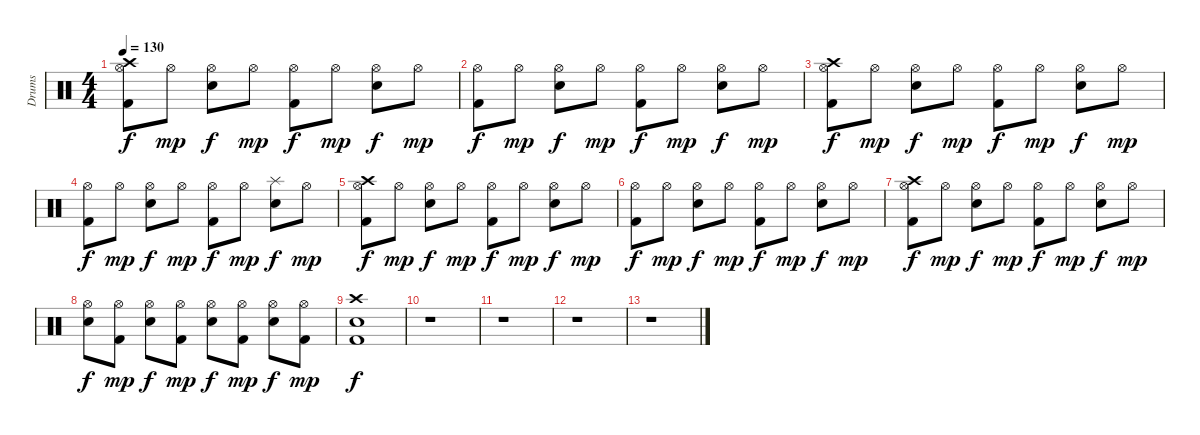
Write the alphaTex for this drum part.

\track ("Drums" "Drums") {instrument percussion}
\staff {score}
\articulation defaults
\ts (4 4)
\tempo 130
\clef neutral
\ks c
("Crash high (hit)" "Hi-Hat (open)" "Kick (hit) 2").8{dy f} "Hi-Hat (open)".8{dy mp} ("Hi-Hat (open)" "Electric Snare (hit)").8{dy f} "Hi-Hat (open)".8{dy mp} ("Hi-Hat (open)" "Kick (hit) 2").8{dy f} "Hi-Hat (open)".8{dy mp} ("Hi-Hat (open)" "Electric Snare (hit)").8{dy f} "Hi-Hat (open)".8{dy mp} |
("Hi-Hat (open)" "Kick (hit) 2").8{dy f} "Hi-Hat (open)".8{dy mp} ("Hi-Hat (open)" "Electric Snare (hit)").8{dy f} "Hi-Hat (open)".8{dy mp} ("Hi-Hat (open)" "Kick (hit) 2").8{dy f} "Hi-Hat (open)".8{dy mp} ("Hi-Hat (open)" "Electric Snare (hit)").8{dy f} "Hi-Hat (open)".8{dy mp} |
("Crash high (hit)" "Hi-Hat (open)" "Kick (hit) 2").8{dy f} "Hi-Hat (open)".8{dy mp} ("Hi-Hat (open)" "Electric Snare (hit)").8{dy f} "Hi-Hat (open)".8{dy mp} ("Hi-Hat (open)" "Kick (hit) 2").8{dy f} "Hi-Hat (open)".8{dy mp} ("Hi-Hat (open)" "Electric Snare (hit)").8{dy f} "Hi-Hat (open)".8{dy mp} |
("Hi-Hat (open)" "Kick (hit) 2").8{dy f} "Hi-Hat (open)".8{dy mp} ("Hi-Hat (open)" "Electric Snare (hit)").8{dy f} "Hi-Hat (open)".8{dy mp} ("Hi-Hat (open)" "Kick (hit) 2").8{dy f} "Hi-Hat (open)".8{dy mp} ("Splash (hit)" "Electric Snare (hit)").8{dy f} "Hi-Hat (open)".8{dy mp} |
("Crash high (hit)" "Hi-Hat (open)" "Kick (hit) 2").8{dy f} "Hi-Hat (open)".8{dy mp} ("Hi-Hat (open)" "Electric Snare (hit)").8{dy f} "Hi-Hat (open)".8{dy mp} ("Hi-Hat (open)" "Kick (hit) 2").8{dy f} "Hi-Hat (open)".8{dy mp} ("Hi-Hat (open)" "Electric Snare (hit)").8{dy f} "Hi-Hat (open)".8{dy mp} |
("Hi-Hat (open)" "Kick (hit) 2").8{dy f} "Hi-Hat (open)".8{dy mp} ("Hi-Hat (open)" "Electric Snare (hit)").8{dy f} "Hi-Hat (open)".8{dy mp} ("Hi-Hat (open)" "Kick (hit) 2").8{dy f} "Hi-Hat (open)".8{dy mp} ("Hi-Hat (open)" "Electric Snare (hit)").8{dy f} "Hi-Hat (open)".8{dy mp} |
("Crash high (hit)" "Hi-Hat (open)" "Kick (hit) 2").8{dy f} "Hi-Hat (open)".8{dy mp} ("Hi-Hat (open)" "Electric Snare (hit)").8{dy f} "Hi-Hat (open)".8{dy mp} ("Hi-Hat (open)" "Kick (hit) 2").8{dy f} "Hi-Hat (open)".8{dy mp} ("Hi-Hat (open)" "Electric Snare (hit)").8{dy f} "Hi-Hat (open)".8{dy mp} |
("Hi-Hat (open)" "Electric Snare (hit)").8{dy f} ("Hi-Hat (open)" "Kick (hit) 2").8{dy mp} ("Hi-Hat (open)" "Electric Snare (hit)").8{dy f} ("Hi-Hat (open)" "Kick (hit) 2").8{dy mp} ("Hi-Hat (open)" "Electric Snare (hit)").8{dy f} ("Hi-Hat (open)" "Kick (hit) 2").8{dy mp} ("Hi-Hat (open)" "Electric Snare (hit)").8{dy f} ("Hi-Hat (open)" "Kick (hit) 2").8{dy mp} |
("Crash high (hit)" "Electric Snare (hit)" "Kick (hit) 2").1{dy f} |
r.1 |
r.1 |
r.1 |
r.1
